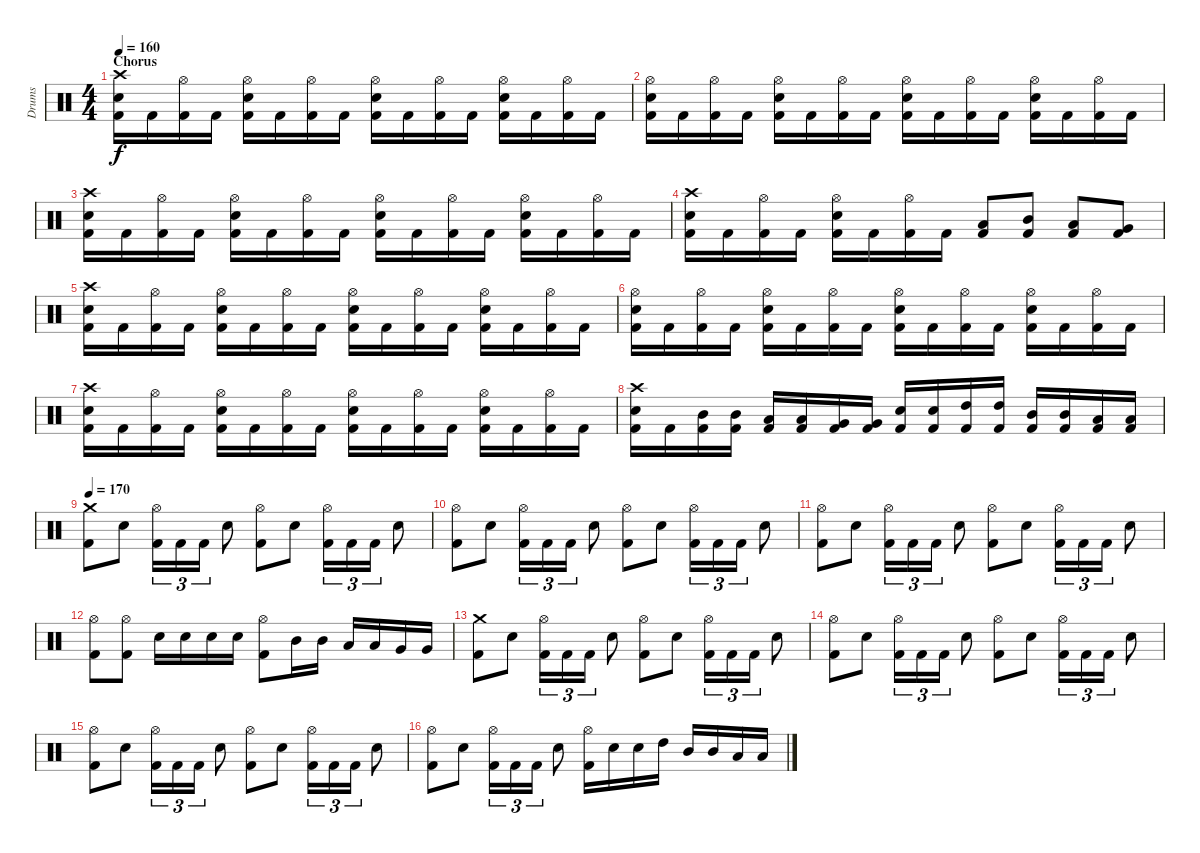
\track ("Drums" "Drums") {instrument percussion}
\staff {score}
\articulation defaults
\ts (4 4)
\section ("" "Chorus")
\tempo 160
\clef neutral
\ks c
("Kick (hit) 2" "Electric Snare (hit)" "Crash high (hit)").16{dy f} "Kick (hit) 2".16 ("Kick (hit) 2" "Hi-Hat (open)").16 "Kick (hit) 2".16 ("Kick (hit) 2" "Electric Snare (hit)" "Hi-Hat (open)").16 "Kick (hit) 2".16 ("Kick (hit) 2" "Hi-Hat (open)").16 "Kick (hit) 2".16 ("Kick (hit) 2" "Electric Snare (hit)" "Hi-Hat (open)").16 "Kick (hit) 2".16 ("Kick (hit) 2" "Hi-Hat (open)").16 "Kick (hit) 2".16 ("Kick (hit) 2" "Electric Snare (hit)" "Hi-Hat (open)").16 "Kick (hit) 2".16 ("Kick (hit) 2" "Hi-Hat (open)").16 "Kick (hit) 2".16 |
("Kick (hit) 2" "Electric Snare (hit)" "Hi-Hat (open)").16 "Kick (hit) 2".16 ("Kick (hit) 2" "Hi-Hat (open)").16 "Kick (hit) 2".16 ("Kick (hit) 2" "Electric Snare (hit)" "Hi-Hat (open)").16 "Kick (hit) 2".16 ("Kick (hit) 2" "Hi-Hat (open)").16 "Kick (hit) 2".16 ("Kick (hit) 2" "Electric Snare (hit)" "Hi-Hat (open)").16 "Kick (hit) 2".16 ("Kick (hit) 2" "Hi-Hat (open)").16 "Kick (hit) 2".16 ("Kick (hit) 2" "Electric Snare (hit)" "Hi-Hat (open)").16 "Kick (hit) 2".16 ("Kick (hit) 2" "Hi-Hat (open)").16 "Kick (hit) 2".16 |
("Kick (hit) 2" "Electric Snare (hit)" "Crash high (hit)").16 "Kick (hit) 2".16 ("Kick (hit) 2" "Hi-Hat (open)").16 "Kick (hit) 2".16 ("Kick (hit) 2" "Electric Snare (hit)" "Hi-Hat (open)").16 "Kick (hit) 2".16 ("Kick (hit) 2" "Hi-Hat (open)").16 "Kick (hit) 2".16 ("Kick (hit) 2" "Electric Snare (hit)" "Hi-Hat (open)").16 "Kick (hit) 2".16 ("Kick (hit) 2" "Hi-Hat (open)").16 "Kick (hit) 2".16 ("Kick (hit) 2" "Electric Snare (hit)" "Hi-Hat (open)").16 "Kick (hit) 2".16 ("Kick (hit) 2" "Hi-Hat (open)").16 "Kick (hit) 2".16 |
("Kick (hit) 2" "Electric Snare (hit)" "Crash high (hit)").16 "Kick (hit) 2".16 ("Kick (hit) 2" "Hi-Hat (open)").16 "Kick (hit) 2".16 ("Kick (hit) 2" "Electric Snare (hit)" "Hi-Hat (open)").16 "Kick (hit) 2".16 ("Kick (hit) 2" "Hi-Hat (open)").16 "Kick (hit) 2".16 ("Kick (hit) 2" "Low Tom (hit)").8 ("Kick (hit) 2" "Mid Tom (hit)").8 ("Kick (hit) 2" "Low Tom (hit)").8 ("Kick (hit) 2" "Very Low Tom (hit)").8 |
("Kick (hit) 2" "Electric Snare (hit)" "Crash high (hit)").16 "Kick (hit) 2".16 ("Kick (hit) 2" "Hi-Hat (open)").16 "Kick (hit) 2".16 ("Kick (hit) 2" "Electric Snare (hit)" "Hi-Hat (open)").16 "Kick (hit) 2".16 ("Kick (hit) 2" "Hi-Hat (open)").16 "Kick (hit) 2".16 ("Kick (hit) 2" "Electric Snare (hit)" "Hi-Hat (open)").16 "Kick (hit) 2".16 ("Kick (hit) 2" "Hi-Hat (open)").16 "Kick (hit) 2".16 ("Kick (hit) 2" "Electric Snare (hit)" "Hi-Hat (open)").16 "Kick (hit) 2".16 ("Kick (hit) 2" "Hi-Hat (open)").16 "Kick (hit) 2".16 |
("Kick (hit) 2" "Electric Snare (hit)" "Hi-Hat (open)").16 "Kick (hit) 2".16 ("Kick (hit) 2" "Hi-Hat (open)").16 "Kick (hit) 2".16 ("Kick (hit) 2" "Electric Snare (hit)" "Hi-Hat (open)").16 "Kick (hit) 2".16 ("Kick (hit) 2" "Hi-Hat (open)").16 "Kick (hit) 2".16 ("Kick (hit) 2" "Electric Snare (hit)" "Hi-Hat (open)").16 "Kick (hit) 2".16 ("Kick (hit) 2" "Hi-Hat (open)").16 "Kick (hit) 2".16 ("Kick (hit) 2" "Electric Snare (hit)" "Hi-Hat (open)").16 "Kick (hit) 2".16 ("Kick (hit) 2" "Hi-Hat (open)").16 "Kick (hit) 2".16 |
("Kick (hit) 2" "Electric Snare (hit)" "Crash high (hit)").16 "Kick (hit) 2".16 ("Kick (hit) 2" "Hi-Hat (open)").16 "Kick (hit) 2".16 ("Kick (hit) 2" "Electric Snare (hit)" "Hi-Hat (open)").16 "Kick (hit) 2".16 ("Kick (hit) 2" "Hi-Hat (open)").16 "Kick (hit) 2".16 ("Kick (hit) 2" "Electric Snare (hit)" "Hi-Hat (open)").16 "Kick (hit) 2".16 ("Kick (hit) 2" "Hi-Hat (open)").16 "Kick (hit) 2".16 ("Kick (hit) 2" "Electric Snare (hit)" "Hi-Hat (open)").16 "Kick (hit) 2".16 ("Kick (hit) 2" "Hi-Hat (open)").16 "Kick (hit) 2".16 |
("Kick (hit) 2" "Electric Snare (hit)" "Crash high (hit)").16 "Kick (hit) 2".16 ("Kick (hit) 2" "Mid Tom (hit)").16 ("Kick (hit) 2" "Mid Tom (hit)").16 ("Kick (hit) 2" "Low Tom (hit)").16 ("Kick (hit) 2" "Low Tom (hit)").16 ("Kick (hit) 2" "Very Low Tom (hit)").16 ("Kick (hit) 2" "Very Low Tom (hit)").16 ("Kick (hit) 2" "Electric Snare (hit)").16 ("Kick (hit) 2" "Electric Snare (hit)").16 ("Kick (hit) 2" "High Tom (hit)").16 ("Kick (hit) 2" "High Tom (hit)").16 ("Kick (hit) 2" "Mid Tom (hit)").16 ("Kick (hit) 2" "Mid Tom (hit)").16 ("Kick (hit) 2" "Low Tom (hit)").16 ("Kick (hit) 2" "Low Tom (hit)").16 |
\tempo 170
("Kick (hit) 2" "Crash medium (hit)").8 "Electric Snare (hit)".8 ("Kick (hit) 2" "Hi-Hat (open)").16{tu (3 2)} "Kick (hit) 2".16{tu (3 2)} "Kick (hit) 2".16{tu (3 2)} "Electric Snare (hit)".8 ("Kick (hit) 2" "Hi-Hat (open)").8 "Electric Snare (hit)".8 ("Kick (hit) 2" "Hi-Hat (open)").16{tu (3 2)} "Kick (hit) 2".16{tu (3 2)} "Kick (hit) 2".16{tu (3 2)} "Electric Snare (hit)".8 |
("Kick (hit) 2" "Hi-Hat (open)").8 "Electric Snare (hit)".8 ("Kick (hit) 2" "Hi-Hat (open)").16{tu (3 2)} "Kick (hit) 2".16{tu (3 2)} "Kick (hit) 2".16{tu (3 2)} "Electric Snare (hit)".8 ("Kick (hit) 2" "Hi-Hat (open)").8 "Electric Snare (hit)".8 ("Kick (hit) 2" "Hi-Hat (open)").16{tu (3 2)} "Kick (hit) 2".16{tu (3 2)} "Kick (hit) 2".16{tu (3 2)} "Electric Snare (hit)".8 |
("Kick (hit) 2" "Hi-Hat (open)").8 "Electric Snare (hit)".8 ("Kick (hit) 2" "Hi-Hat (open)").16{tu (3 2)} "Kick (hit) 2".16{tu (3 2)} "Kick (hit) 2".16{tu (3 2)} "Electric Snare (hit)".8 ("Kick (hit) 2" "Hi-Hat (open)").8 "Electric Snare (hit)".8 ("Kick (hit) 2" "Hi-Hat (open)").16{tu (3 2)} "Kick (hit) 2".16{tu (3 2)} "Kick (hit) 2".16{tu (3 2)} "Electric Snare (hit)".8 |
("Kick (hit) 2" "Hi-Hat (open)").8 ("Kick (hit) 2" "Hi-Hat (open)").8 "Electric Snare (hit)".16 "Electric Snare (hit)".16 "Electric Snare (hit)".16 "Electric Snare (hit)".16 ("Kick (hit) 2" "Hi-Hat (open)").8 "Mid Tom (hit)".16 "Mid Tom (hit)".16 "Low Tom (hit)".16 "Low Tom (hit)".16 "Very Low Tom (hit)".16 "Very Low Tom (hit)".16 |
("Kick (hit) 2" "Crash medium (hit)").8 "Electric Snare (hit)".8 ("Kick (hit) 2" "Hi-Hat (open)").16{tu (3 2)} "Kick (hit) 2".16{tu (3 2)} "Kick (hit) 2".16{tu (3 2)} "Electric Snare (hit)".8 ("Kick (hit) 2" "Hi-Hat (open)").8 "Electric Snare (hit)".8 ("Kick (hit) 2" "Hi-Hat (open)").16{tu (3 2)} "Kick (hit) 2".16{tu (3 2)} "Kick (hit) 2".16{tu (3 2)} "Electric Snare (hit)".8 |
("Kick (hit) 2" "Hi-Hat (open)").8 "Electric Snare (hit)".8 ("Kick (hit) 2" "Hi-Hat (open)").16{tu (3 2)} "Kick (hit) 2".16{tu (3 2)} "Kick (hit) 2".16{tu (3 2)} "Electric Snare (hit)".8 ("Kick (hit) 2" "Hi-Hat (open)").8 "Electric Snare (hit)".8 ("Kick (hit) 2" "Hi-Hat (open)").16{tu (3 2)} "Kick (hit) 2".16{tu (3 2)} "Kick (hit) 2".16{tu (3 2)} "Electric Snare (hit)".8 |
("Kick (hit) 2" "Hi-Hat (open)").8 "Electric Snare (hit)".8 ("Kick (hit) 2" "Hi-Hat (open)").16{tu (3 2)} "Kick (hit) 2".16{tu (3 2)} "Kick (hit) 2".16{tu (3 2)} "Electric Snare (hit)".8 ("Kick (hit) 2" "Hi-Hat (open)").8 "Electric Snare (hit)".8 ("Kick (hit) 2" "Hi-Hat (open)").16{tu (3 2)} "Kick (hit) 2".16{tu (3 2)} "Kick (hit) 2".16{tu (3 2)} "Electric Snare (hit)".8 |
("Kick (hit) 2" "Hi-Hat (open)").8 "Electric Snare (hit)".8 ("Kick (hit) 2" "Hi-Hat (open)").16{tu (3 2)} "Kick (hit) 2".16{tu (3 2)} "Kick (hit) 2".16{tu (3 2)} "Electric Snare (hit)".8 ("Kick (hit) 2" "Hi-Hat (open)").16 "Electric Snare (hit)".16 "Electric Snare (hit)".16 "High Tom (hit)".16 "Mid Tom (hit)".16 "Mid Tom (hit)".16 "Low Tom (hit)".16 "Low Tom (hit)".16
